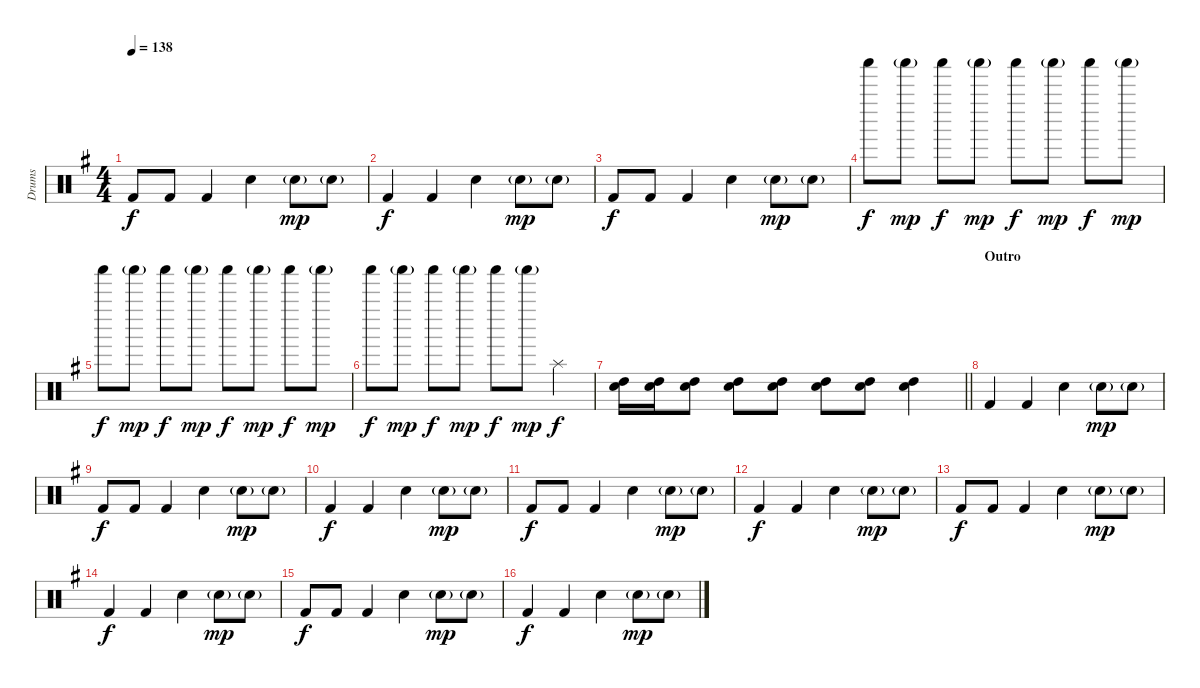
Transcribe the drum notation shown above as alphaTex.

\track ("Drums" "Drums") {instrument percussion}
\staff {score}
\articulation defaults
\ts (4 4)
\tempo 138
\clef neutral
\ks g "Kick (hit) 2".8{dy f} "Kick (hit) 2".8 "Kick (hit) 2".4 "Snare (hit) 2".4 "Snare (hit) 2"{g}.8{dy mp} "Snare (hit) 2"{g}.8
|
"Kick (hit) 2".4{dy f} "Kick (hit) 2".4 "Snare (hit) 2".4 "Snare (hit) 2"{g}.8{dy mp} "Snare (hit) 2"{g}.8 |
"Kick (hit) 2".8{dy f} "Kick (hit) 2".8 "Kick (hit) 2".4 "Snare (hit) 2".4 "Snare (hit) 2"{g}.8{dy mp} "Snare (hit) 2"{g}.8 |
"Shaker (hit)".8{dy f} "Shaker (hit)"{g}.8{dy mp} "Shaker (hit)".8{dy f} "Shaker (hit)"{g}.8{dy mp} "Shaker (hit)".8{dy f} "Shaker (hit)"{g}.8{dy mp} "Shaker (hit)".8{dy f} "Shaker (hit)"{g}.8{dy mp} |
"Shaker (hit)".8{dy f} "Shaker (hit)"{g}.8{dy mp} "Shaker (hit)".8{dy f} "Shaker (hit)"{g}.8{dy mp} "Shaker (hit)".8{dy f} "Shaker (hit)"{g}.8{dy mp} "Shaker (hit)".8{dy f} "Shaker (hit)"{g}.8{dy mp} |
"Shaker (hit)".8{dy f} "Shaker (hit)"{g}.8{dy mp} "Shaker (hit)".8{dy f} "Shaker (hit)"{g}.8{dy mp} "Shaker (hit)".8{dy f} "Shaker (hit)"{g}.8{dy mp} "Splash (hit)".4{dy f volume 16} |
\barLineRight lightlight
("Snare (hit) 2" "High Tom (hit)").16 ("Snare (hit) 2" "High Tom (hit)").16 ("Snare (hit) 2" "High Tom (hit)").8 ("Snare (hit) 2" "High Tom (hit)").8 ("Snare (hit) 2" "High Tom (hit)").8 ("Snare (hit) 2" "High Tom (hit)").8 ("Snare (hit) 2" "High Tom (hit)").8 ("Snare (hit) 2" "High Tom (hit)").4 |
\section ("" "Outro")
"Kick (hit) 2".4 "Kick (hit) 2".4 "Snare (hit) 2".4 "Snare (hit) 2"{g}.8{dy mp} "Snare (hit) 2"{g}.8 |
"Kick (hit) 2".8{dy f} "Kick (hit) 2".8 "Kick (hit) 2".4 "Snare (hit) 2".4 "Snare (hit) 2"{g}.8{dy mp} "Snare (hit) 2"{g}.8 |
"Kick (hit) 2".4{dy f} "Kick (hit) 2".4 "Snare (hit) 2".4 "Snare (hit) 2"{g}.8{dy mp} "Snare (hit) 2"{g}.8 |
"Kick (hit) 2".8{dy f} "Kick (hit) 2".8 "Kick (hit) 2".4 "Snare (hit) 2".4 "Snare (hit) 2"{g}.8{dy mp} "Snare (hit) 2"{g}.8 |
"Kick (hit) 2".4{dy f} "Kick (hit) 2".4 "Snare (hit) 2".4 "Snare (hit) 2"{g}.8{dy mp} "Snare (hit) 2"{g}.8 |
"Kick (hit) 2".8{dy f} "Kick (hit) 2".8 "Kick (hit) 2".4 "Snare (hit) 2".4 "Snare (hit) 2"{g}.8{dy mp} "Snare (hit) 2"{g}.8 |
"Kick (hit) 2".4{dy f} "Kick (hit) 2".4 "Snare (hit) 2".4 "Snare (hit) 2"{g}.8{dy mp} "Snare (hit) 2"{g}.8 |
"Kick (hit) 2".8{dy f} "Kick (hit) 2".8 "Kick (hit) 2".4 "Snare (hit) 2".4 "Snare (hit) 2"{g}.8{dy mp} "Snare (hit) 2"{g}.8 |
"Kick (hit) 2".4{dy f} "Kick (hit) 2".4 "Snare (hit) 2".4 "Snare (hit) 2"{g}.8{dy mp} "Snare (hit) 2"{g}.8
